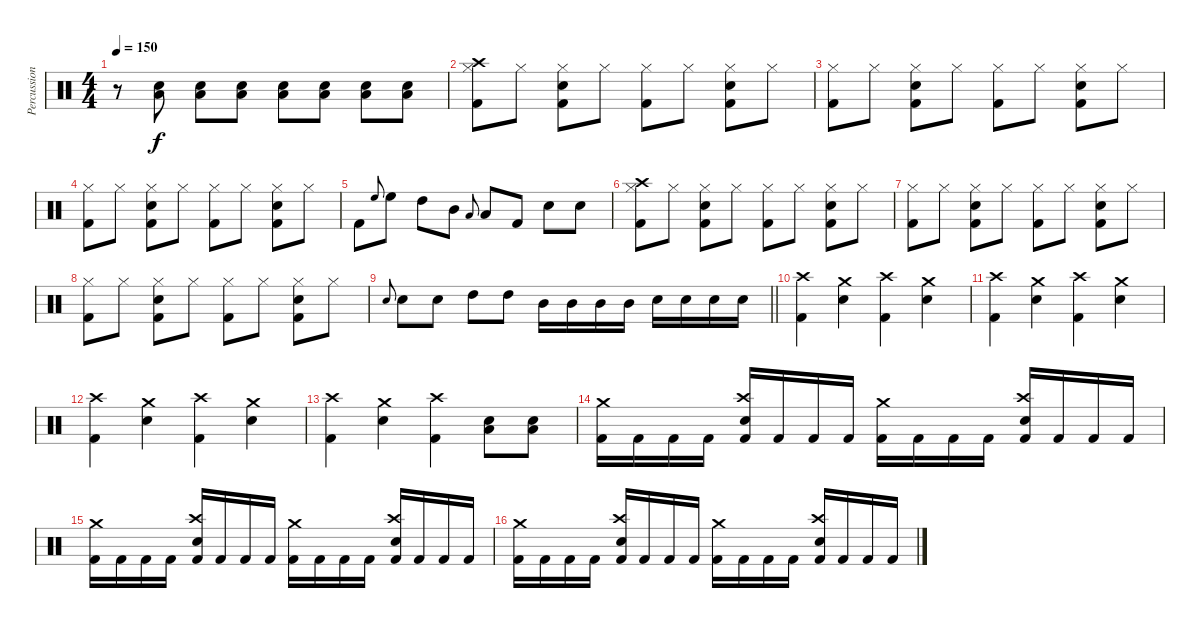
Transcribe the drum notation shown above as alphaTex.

\track ("Percussion" "Percussion") {instrument percussion}
\staff {score}
\articulation defaults
\ts (4 4)
\tempo 150
\clef neutral
\ks c
r.8{dy f} ("Low Floor Tom (hit)" "Snare (hit) 2").8 ("Low Floor Tom (hit)" "Snare (hit) 2").8 ("Low Floor Tom (hit)" "Snare (hit) 2").8 ("Low Floor Tom (hit)" "Snare (hit) 2").8 ("Low Floor Tom (hit)" "Snare (hit) 2").8 ("Low Floor Tom (hit)" "Snare (hit) 2").8 ("Low Floor Tom (hit)" "Snare (hit) 2").8 |
("Crash high (hit)" "Hi-Hat (closed)" "Kick (hit) 2").8 "Hi-Hat (closed)".8 ("Snare (hit) 2" "Hi-Hat (closed)" "Kick (hit) 2").8 "Hi-Hat (closed)".8 ("Hi-Hat (closed)" "Kick (hit) 2").8 "Hi-Hat (closed)".8 ("Snare (hit) 2" "Hi-Hat (closed)" "Kick (hit) 2").8 "Hi-Hat (closed)".8 |
("Hi-Hat (closed)" "Kick (hit) 2").8 "Hi-Hat (closed)".8 ("Snare (hit) 2" "Hi-Hat (closed)" "Kick (hit) 2").8 "Hi-Hat (closed)".8 ("Hi-Hat (closed)" "Kick (hit) 2").8 "Hi-Hat (closed)".8 ("Snare (hit) 2" "Hi-Hat (closed)" "Kick (hit) 2").8 "Hi-Hat (closed)".8 |
("Hi-Hat (closed)" "Kick (hit) 2").8 "Hi-Hat (closed)".8 ("Snare (hit) 2" "Hi-Hat (closed)" "Kick (hit) 2").8 "Hi-Hat (closed)".8 ("Hi-Hat (closed)" "Kick (hit) 2").8 "Hi-Hat (closed)".8 ("Snare (hit) 2" "Hi-Hat (closed)" "Kick (hit) 2").8 "Hi-Hat (closed)".8 |
"Kick (hit) 2".8 "High Floor Tom (hit)".8{gr onbeat} "High Floor Tom (hit)".8 "High Tom (hit)".8 "Mid Tom (hit)".8 "Low Tom (hit)".8{gr onbeat} "Low Tom (hit)".8 "Kick (hit) 2".8 "Snare (hit) 2".8 "Snare (hit) 2".8 |
("Crash high (hit)" "Hi-Hat (closed)" "Kick (hit) 2").8 "Hi-Hat (closed)".8 ("Snare (hit) 2" "Hi-Hat (closed)" "Kick (hit) 2").8 "Hi-Hat (closed)".8 ("Hi-Hat (closed)" "Kick (hit) 2").8 "Hi-Hat (closed)".8 ("Snare (hit) 2" "Hi-Hat (closed)" "Kick (hit) 2").8 "Hi-Hat (closed)".8 |
("Hi-Hat (closed)" "Kick (hit) 2").8 "Hi-Hat (closed)".8 ("Snare (hit) 2" "Hi-Hat (closed)" "Kick (hit) 2").8 "Hi-Hat (closed)".8 ("Hi-Hat (closed)" "Kick (hit) 2").8 "Hi-Hat (closed)".8 ("Snare (hit) 2" "Hi-Hat (closed)" "Kick (hit) 2").8 "Hi-Hat (closed)".8 |
("Hi-Hat (closed)" "Kick (hit) 2").8 "Hi-Hat (closed)".8 ("Snare (hit) 2" "Hi-Hat (closed)" "Kick (hit) 2").8 "Hi-Hat (closed)".8 ("Hi-Hat (closed)" "Kick (hit) 2").8 "Hi-Hat (closed)".8 ("Snare (hit) 2" "Hi-Hat (closed)" "Kick (hit) 2").8 "Hi-Hat (closed)".8 |
\barLineRight lightlight "Snare (hit) 2".8{gr onbeat} "Snare (hit) 2".8 "Snare (hit) 2".8 "High Tom (hit)".8 "High Tom (hit)".8 "Mid Tom (hit)".16 "Mid Tom (hit)".16 "Mid Tom (hit)".16 "Mid Tom (hit)".16 "Snare (hit) 2".16 "Snare (hit) 2".16 "Snare (hit) 2".16 "Snare (hit) 2".16
|
("Crash high (hit)" "Kick (hit) 2").4 ("Crash medium (hit)" "Snare (hit) 2").4 ("Crash high (hit)" "Kick (hit) 2").4 ("Crash medium (hit)" "Snare (hit) 2").4 |
("Crash high (hit)" "Kick (hit) 2").4 ("Crash medium (hit)" "Snare (hit) 2").4 ("Crash high (hit)" "Kick (hit) 2").4 ("Crash medium (hit)" "Snare (hit) 2").4 |
("Crash high (hit)" "Kick (hit) 2").4 ("Crash medium (hit)" "Snare (hit) 2").4 ("Crash high (hit)" "Kick (hit) 2").4 ("Crash medium (hit)" "Snare (hit) 2").4 |
("Crash high (hit)" "Kick (hit) 2").4 ("Crash medium (hit)" "Snare (hit) 2").4 ("Crash high (hit)" "Kick (hit) 2").4 ("Snare (hit) 2" "Low Floor Tom (hit)").8 ("Snare (hit) 2" "Low Floor Tom (hit)").8 |
("Crash medium (hit)" "Kick (hit) 2").16 "Kick (hit) 2".16 "Kick (hit) 2".16 "Kick (hit) 2".16 ("Crash high (hit)" "Snare (hit) 2" "Kick (hit) 2").16 "Kick (hit) 2".16 "Kick (hit) 2".16 "Kick (hit) 2".16 ("Crash medium (hit)" "Kick (hit) 2").16 "Kick (hit) 2".16 "Kick (hit) 2".16 "Kick (hit) 2".16 ("Crash high (hit)" "Snare (hit) 2" "Kick (hit) 2").16 "Kick (hit) 2".16 "Kick (hit) 2".16 "Kick (hit) 2".16 |
("Crash medium (hit)" "Kick (hit) 2").16 "Kick (hit) 2".16 "Kick (hit) 2".16 "Kick (hit) 2".16 ("Crash high (hit)" "Snare (hit) 2" "Kick (hit) 2").16 "Kick (hit) 2".16 "Kick (hit) 2".16 "Kick (hit) 2".16 ("Crash medium (hit)" "Kick (hit) 2").16 "Kick (hit) 2".16 "Kick (hit) 2".16 "Kick (hit) 2".16 ("Crash high (hit)" "Snare (hit) 2" "Kick (hit) 2").16 "Kick (hit) 2".16 "Kick (hit) 2".16 "Kick (hit) 2".16 |
("Crash medium (hit)" "Kick (hit) 2").16 "Kick (hit) 2".16 "Kick (hit) 2".16 "Kick (hit) 2".16 ("Crash high (hit)" "Snare (hit) 2" "Kick (hit) 2").16 "Kick (hit) 2".16 "Kick (hit) 2".16 "Kick (hit) 2".16 ("Crash medium (hit)" "Kick (hit) 2").16 "Kick (hit) 2".16 "Kick (hit) 2".16 "Kick (hit) 2".16 ("Crash high (hit)" "Snare (hit) 2" "Kick (hit) 2").16 "Kick (hit) 2".16 "Kick (hit) 2".16 "Kick (hit) 2".16
